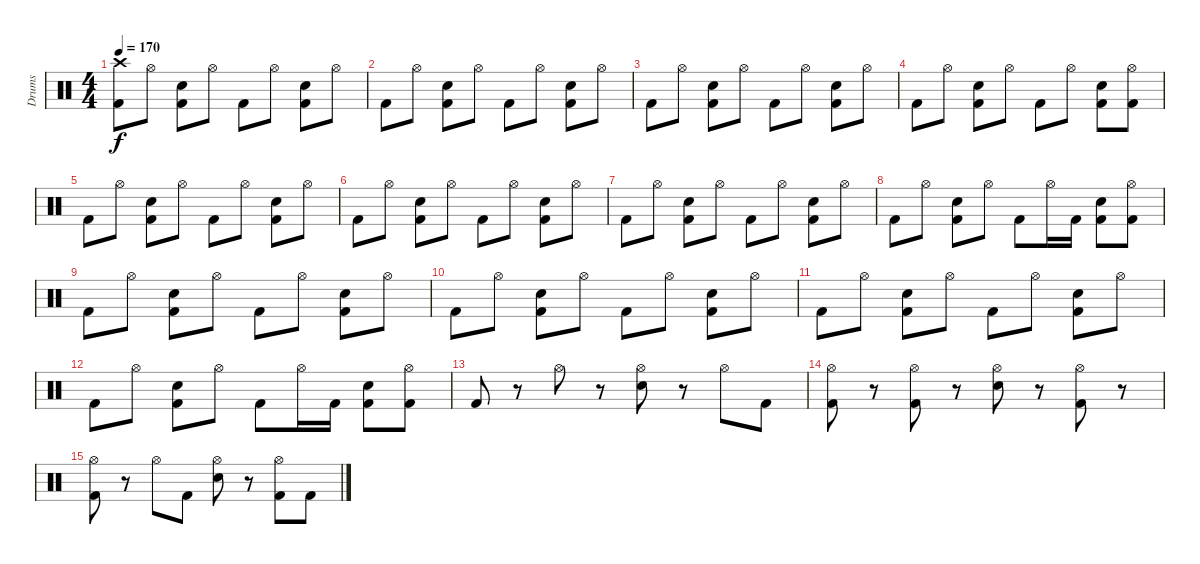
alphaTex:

\track ("Drums" "Drums") {instrument percussion}
\staff {score}
\articulation defaults
\ts (4 4)
\tempo 170
\clef neutral
\ks c
("Crash high (hit)" "Kick (hit) 2").8{dy f} "Hi-Hat (open)".8 ("Snare (hit) 2" "Kick (hit) 2").8 "Hi-Hat (open)".8 "Kick (hit) 2".8 "Hi-Hat (open)".8 ("Snare (hit) 2" "Kick (hit) 2").8 "Hi-Hat (open)".8 |
"Kick (hit) 2".8 "Hi-Hat (open)".8 ("Snare (hit) 2" "Kick (hit) 2").8 "Hi-Hat (open)".8 "Kick (hit) 2".8 "Hi-Hat (open)".8 ("Snare (hit) 2" "Kick (hit) 2").8 "Hi-Hat (open)".8 |
"Kick (hit) 2".8 "Hi-Hat (open)".8 ("Snare (hit) 2" "Kick (hit) 2").8 "Hi-Hat (open)".8 "Kick (hit) 2".8 "Hi-Hat (open)".8 ("Snare (hit) 2" "Kick (hit) 2").8 "Hi-Hat (open)".8 |
"Kick (hit) 2".8 "Hi-Hat (open)".8 ("Snare (hit) 2" "Kick (hit) 2").8 "Hi-Hat (open)".8 "Kick (hit) 2".8 "Hi-Hat (open)".8 ("Snare (hit) 2" "Kick (hit) 2").8 ("Hi-Hat (open)" "Kick (hit) 2").8 |
"Kick (hit) 2".8 "Hi-Hat (open)".8 ("Snare (hit) 2" "Kick (hit) 2").8 "Hi-Hat (open)".8 "Kick (hit) 2".8 "Hi-Hat (open)".8 ("Snare (hit) 2" "Kick (hit) 2").8 "Hi-Hat (open)".8 |
"Kick (hit) 2".8 "Hi-Hat (open)".8 ("Snare (hit) 2" "Kick (hit) 2").8 "Hi-Hat (open)".8 "Kick (hit) 2".8 "Hi-Hat (open)".8 ("Snare (hit) 2" "Kick (hit) 2").8 "Hi-Hat (open)".8 |
"Kick (hit) 2".8 "Hi-Hat (open)".8 ("Snare (hit) 2" "Kick (hit) 2").8 "Hi-Hat (open)".8 "Kick (hit) 2".8 "Hi-Hat (open)".8 ("Snare (hit) 2" "Kick (hit) 2").8 "Hi-Hat (open)".8 |
"Kick (hit) 2".8 "Hi-Hat (open)".8 ("Snare (hit) 2" "Kick (hit) 2").8 "Hi-Hat (open)".8 "Kick (hit) 2".8 "Hi-Hat (open)".16 "Kick (hit) 2".16 ("Snare (hit) 2" "Kick (hit) 2").8 ("Hi-Hat (open)" "Kick (hit) 2").8 |
"Kick (hit) 2".8 "Hi-Hat (open)".8 ("Snare (hit) 2" "Kick (hit) 2").8 "Hi-Hat (open)".8 "Kick (hit) 2".8 "Hi-Hat (open)".8 ("Snare (hit) 2" "Kick (hit) 2").8 "Hi-Hat (open)".8 |
"Kick (hit) 2".8 "Hi-Hat (open)".8 ("Snare (hit) 2" "Kick (hit) 2").8 "Hi-Hat (open)".8 "Kick (hit) 2".8 "Hi-Hat (open)".8 ("Snare (hit) 2" "Kick (hit) 2").8 "Hi-Hat (open)".8 |
"Kick (hit) 2".8 "Hi-Hat (open)".8 ("Snare (hit) 2" "Kick (hit) 2").8 "Hi-Hat (open)".8 "Kick (hit) 2".8 "Hi-Hat (open)".8 ("Snare (hit) 2" "Kick (hit) 2").8 "Hi-Hat (open)".8 |
"Kick (hit) 2".8 "Hi-Hat (open)".8 ("Snare (hit) 2" "Kick (hit) 2").8 "Hi-Hat (open)".8 "Kick (hit) 2".8 "Hi-Hat (open)".16 "Kick (hit) 2".16 ("Snare (hit) 2" "Kick (hit) 2").8 ("Hi-Hat (open)" "Kick (hit) 2").8 |
"Kick (hit) 2".8 r.8 "Hi-Hat (open)".8 r.8 ("Hi-Hat (open)" "Snare (hit) 2").8 r.8 "Hi-Hat (open)".8 "Kick (hit) 2".8 |
("Hi-Hat (open)" "Kick (hit) 2").8 r.8 ("Hi-Hat (open)" "Kick (hit) 2").8 r.8 ("Hi-Hat (open)" "Snare (hit) 2").8 r.8 ("Hi-Hat (open)" "Kick (hit) 2").8 r.8 |
("Hi-Hat (open)" "Kick (hit) 2").8 r.8 "Hi-Hat (open)".8 "Kick (hit) 2".8 ("Hi-Hat (open)" "Snare (hit) 2").8 r.8 ("Hi-Hat (open)" "Kick (hit) 2").8 "Kick (hit) 2".8
